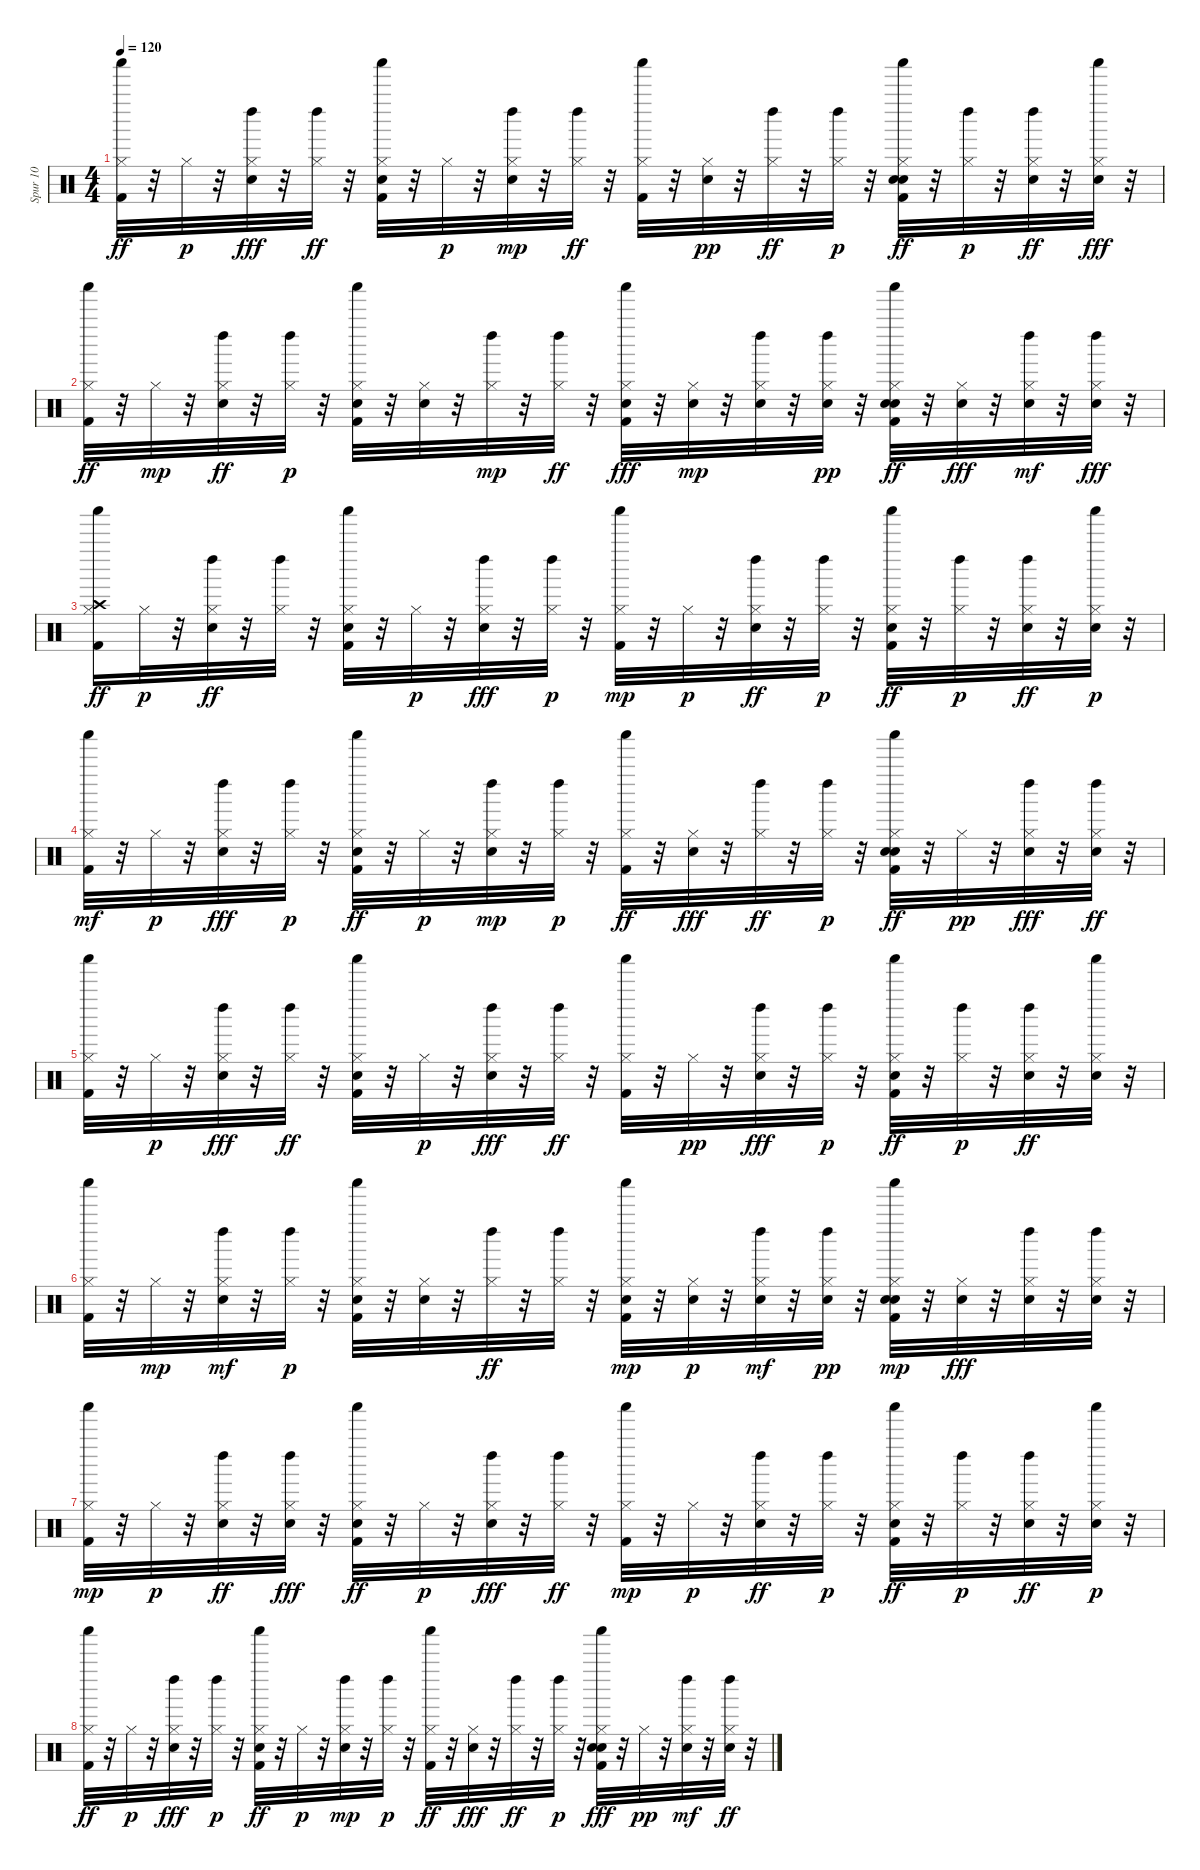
\track ("Spur 10" "Spur 10") {instrument percussion}
\staff {score}
\articulation defaults
\ts (4 4)
\tempo 120
\clef neutral
\ks c
("Shaker (hit)" "Hi-Hat (closed)" "Kick (hit) 2").32{dy ff} r.32 "Hi-Hat (closed)".32{dy p} r.32 ("Hi-Hat (closed)" "Left Maraca (hit)" "Electric Snare (hit)").32{dy fff} r.32 ("Hi-Hat (closed)" "Left Maraca (hit)").32{dy ff} r.32 ("Hi-Hat (closed)" "Snare (hit) 2" "Kick (hit) 2" "Shaker (hit)").32 r.32 "Hi-Hat (closed)".32{dy p} r.32 ("Hi-Hat (closed)" "Electric Snare (hit)" "Left Maraca (hit)").32{dy mp} r.32 ("Hi-Hat (closed)" "Left Maraca (hit)").32{dy ff} r.32 ("Hi-Hat (closed)" "Shaker (hit)" "Kick (hit) 2").32 r.32 ("Electric Snare (hit)" "Hi-Hat (closed)").32{dy pp} r.32 ("Left Maraca (hit)" "Hi-Hat (closed)").32{dy ff} r.32 ("Left Maraca (hit)" "Hi-Hat (closed)").32{dy p} r.32 ("Snare (hit) 2" "Electric Snare (hit)" "Hi-Hat (closed)" "Shaker (hit)" "Kick (hit) 2").32{dy ff} r.32 ("Left Maraca (hit)" "Hi-Hat (closed)").32{dy p} r.32 ("Electric Snare (hit)" "Hi-Hat (closed)" "Left Maraca (hit)").32{dy ff} r.32 ("Shaker (hit)" "Hi-Hat (closed)" "Electric Snare (hit)").32{dy fff} r.32 |
("Kick (hit) 2" "Shaker (hit)" "Hi-Hat (closed)").32{dy ff} r.32 "Hi-Hat (closed)".32{dy mp} r.32 ("Electric Snare (hit)" "Left Maraca (hit)" "Hi-Hat (closed)").32{dy ff} r.32 ("Hi-Hat (closed)" "Left Maraca (hit)").32{dy p} r.32 ("Snare (hit) 2" "Kick (hit) 2" "Shaker (hit)" "Hi-Hat (closed)").32 r.32 ("Electric Snare (hit)" "Hi-Hat (closed)").32 r.32 ("Hi-Hat (closed)" "Left Maraca (hit)").32{dy mp} r.32 ("Hi-Hat (closed)" "Left Maraca (hit)").32{dy ff} r.32 ("Kick (hit) 2" "Hi-Hat (closed)" "Shaker (hit)" "Electric Snare (hit)").32{dy fff} r.32 ("Hi-Hat (closed)" "Electric Snare (hit)").32{dy mp} r.32 ("Hi-Hat (closed)" "Left Maraca (hit)" "Electric Snare (hit)").32 r.32 ("Left Maraca (hit)" "Hi-Hat (closed)" "Electric Snare (hit)").32{dy pp} r.32 ("Hi-Hat (closed)" "Electric Snare (hit)" "Snare (hit) 2" "Shaker (hit)" "Kick (hit) 2").32{dy ff} r.32 ("Hi-Hat (closed)" "Electric Snare (hit)").32{dy fff} r.32 ("Electric Snare (hit)" "Hi-Hat (closed)" "Left Maraca (hit)").32{dy mf} r.32 ("Hi-Hat (closed)" "Left Maraca (hit)" "Electric Snare (hit)").32{dy fff} r.32 |
("Crash high (hit)" "Hi-Hat (closed)" "Shaker (hit)" "Kick (hit) 2").16{dy ff} "Hi-Hat (closed)".32{dy p} r.32 ("Left Maraca (hit)" "Electric Snare (hit)" "Hi-Hat (closed)").32{dy ff} r.32 ("Hi-Hat (closed)" "Left Maraca (hit)").32 r.32 ("Shaker (hit)" "Hi-Hat (closed)" "Snare (hit) 2" "Kick (hit) 2").32 r.32 "Hi-Hat (closed)".32{dy p} r.32 ("Left Maraca (hit)" "Hi-Hat (closed)" "Electric Snare (hit)").32{dy fff} r.32 ("Left Maraca (hit)" "Hi-Hat (closed)").32{dy p} r.32 ("Kick (hit) 2" "Shaker (hit)" "Hi-Hat (closed)").32{dy mp} r.32 "Hi-Hat (closed)".32{dy p} r.32 ("Electric Snare (hit)" "Hi-Hat (closed)" "Left Maraca (hit)").32{dy ff} r.32 ("Left Maraca (hit)" "Hi-Hat (closed)").32{dy p} r.32 ("Snare (hit) 2" "Hi-Hat (closed)" "Shaker (hit)" "Kick (hit) 2").32{dy ff} r.32 ("Hi-Hat (closed)" "Left Maraca (hit)").32{dy p} r.32 ("Hi-Hat (closed)" "Electric Snare (hit)" "Left Maraca (hit)").32{dy ff} r.32 ("Shaker (hit)" "Electric Snare (hit)" "Hi-Hat (closed)").32{dy p} r.32 |
("Kick (hit) 2" "Hi-Hat (closed)" "Shaker (hit)").32{dy mf} r.32 "Hi-Hat (closed)".32{dy p} r.32 ("Hi-Hat (closed)" "Left Maraca (hit)" "Electric Snare (hit)").32{dy fff} r.32 ("Left Maraca (hit)" "Hi-Hat (closed)").32{dy p} r.32 ("Snare (hit) 2" "Kick (hit) 2" "Hi-Hat (closed)" "Shaker (hit)").32{dy ff} r.32 "Hi-Hat (closed)".32{dy p} r.32 ("Hi-Hat (closed)" "Electric Snare (hit)" "Left Maraca (hit)").32{dy mp} r.32 ("Left Maraca (hit)" "Hi-Hat (closed)").32{dy p} r.32 ("Kick (hit) 2" "Shaker (hit)" "Hi-Hat (closed)").32{dy ff} r.32 ("Hi-Hat (closed)" "Electric Snare (hit)").32{dy fff} r.32 ("Hi-Hat (closed)" "Left Maraca (hit)").32{dy ff} r.32 ("Left Maraca (hit)" "Hi-Hat (closed)").32{dy p} r.32 ("Shaker (hit)" "Snare (hit) 2" "Kick (hit) 2" "Electric Snare (hit)" "Hi-Hat (closed)").32{dy ff} r.32 "Hi-Hat (closed)".32{dy pp} r.32 ("Left Maraca (hit)" "Hi-Hat (closed)" "Electric Snare (hit)").32{dy fff} r.32 ("Electric Snare (hit)" "Hi-Hat (closed)" "Left Maraca (hit)").32{dy ff} r.32 |
("Kick (hit) 2" "Hi-Hat (closed)" "Shaker (hit)").32 r.32 "Hi-Hat (closed)".32{dy p} r.32 ("Hi-Hat (closed)" "Left Maraca (hit)" "Electric Snare (hit)").32{dy fff} r.32 ("Hi-Hat (closed)" "Left Maraca (hit)").32{dy ff} r.32 ("Snare (hit) 2" "Shaker (hit)" "Hi-Hat (closed)" "Kick (hit) 2").32 r.32 "Hi-Hat (closed)".32{dy p} r.32 ("Left Maraca (hit)" "Hi-Hat (closed)" "Electric Snare (hit)").32{dy fff} r.32 ("Hi-Hat (closed)" "Left Maraca (hit)").32{dy ff} r.32 ("Shaker (hit)" "Hi-Hat (closed)" "Kick (hit) 2").32 r.32 "Hi-Hat (closed)".32{dy pp} r.32 ("Hi-Hat (closed)" "Left Maraca (hit)" "Electric Snare (hit)").32{dy fff} r.32 ("Left Maraca (hit)" "Hi-Hat (closed)").32{dy p} r.32 ("Shaker (hit)" "Hi-Hat (closed)" "Snare (hit) 2" "Kick (hit) 2").32{dy ff} r.32 ("Hi-Hat (closed)" "Left Maraca (hit)").32{dy p} r.32 ("Electric Snare (hit)" "Left Maraca (hit)" "Hi-Hat (closed)").32{dy ff} r.32 ("Electric Snare (hit)" "Hi-Hat (closed)" "Shaker (hit)").32 r.32 |
("Kick (hit) 2" "Hi-Hat (closed)" "Shaker (hit)").32 r.32 "Hi-Hat (closed)".32{dy mp} r.32 ("Electric Snare (hit)" "Hi-Hat (closed)" "Left Maraca (hit)").32{dy mf} r.32 ("Hi-Hat (closed)" "Left Maraca (hit)").32{dy p} r.32 ("Shaker (hit)" "Snare (hit) 2" "Kick (hit) 2" "Hi-Hat (closed)").32 r.32 ("Electric Snare (hit)" "Hi-Hat (closed)").32 r.32 ("Left Maraca (hit)" "Hi-Hat (closed)").32{dy ff} r.32 ("Hi-Hat (closed)" "Left Maraca (hit)").32 r.32 ("Electric Snare (hit)" "Shaker (hit)" "Kick (hit) 2" "Hi-Hat (closed)").32{dy mp} r.32 ("Electric Snare (hit)" "Hi-Hat (closed)").32{dy p} r.32 ("Hi-Hat (closed)" "Electric Snare (hit)" "Left Maraca (hit)").32{dy mf} r.32 ("Hi-Hat (closed)" "Left Maraca (hit)" "Electric Snare (hit)").32{dy pp} r.32 ("Shaker (hit)" "Electric Snare (hit)" "Kick (hit) 2" "Snare (hit) 2" "Hi-Hat (closed)").32{dy mp} r.32 ("Hi-Hat (closed)" "Electric Snare (hit)").32{dy fff} r.32 ("Left Maraca (hit)" "Hi-Hat (closed)" "Electric Snare (hit)").32 r.32 ("Hi-Hat (closed)" "Left Maraca (hit)" "Electric Snare (hit)").32 r.32 |
("Kick (hit) 2" "Hi-Hat (closed)" "Shaker (hit)").32{dy mp} r.32 "Hi-Hat (closed)".32{dy p} r.32 ("Electric Snare (hit)" "Left Maraca (hit)" "Hi-Hat (closed)").32{dy ff} r.32 ("Hi-Hat (closed)" "Left Maraca (hit)" "Electric Snare (hit)").32{dy fff} r.32 ("Snare (hit) 2" "Shaker (hit)" "Hi-Hat (closed)" "Kick (hit) 2").32{dy ff} r.32 "Hi-Hat (closed)".32{dy p} r.32 ("Hi-Hat (closed)" "Left Maraca (hit)" "Electric Snare (hit)").32{dy fff} r.32 ("Hi-Hat (closed)" "Left Maraca (hit)").32{dy ff} r.32 ("Kick (hit) 2" "Hi-Hat (closed)" "Shaker (hit)").32{dy mp} r.32 "Hi-Hat (closed)".32{dy p} r.32 ("Left Maraca (hit)" "Electric Snare (hit)" "Hi-Hat (closed)").32{dy ff} r.32 ("Left Maraca (hit)" "Hi-Hat (closed)").32{dy p} r.32 ("Shaker (hit)" "Hi-Hat (closed)" "Snare (hit) 2" "Kick (hit) 2").32{dy ff} r.32 ("Left Maraca (hit)" "Hi-Hat (closed)").32{dy p} r.32 ("Electric Snare (hit)" "Hi-Hat (closed)" "Left Maraca (hit)").32{dy ff} r.32 ("Electric Snare (hit)" "Hi-Hat (closed)" "Shaker (hit)").32{dy p} r.32 |
("Shaker (hit)" "Hi-Hat (closed)" "Kick (hit) 2").32{dy ff} r.32 "Hi-Hat (closed)".32{dy p} r.32 ("Left Maraca (hit)" "Hi-Hat (closed)" "Electric Snare (hit)").32{dy fff} r.32 ("Left Maraca (hit)" "Hi-Hat (closed)").32{dy p} r.32 ("Shaker (hit)" "Snare (hit) 2" "Kick (hit) 2" "Hi-Hat (closed)").32{dy ff} r.32 "Hi-Hat (closed)".32{dy p} r.32 ("Electric Snare (hit)" "Hi-Hat (closed)" "Left Maraca (hit)").32{dy mp} r.32 ("Left Maraca (hit)" "Hi-Hat (closed)").32{dy p} r.32 ("Hi-Hat (closed)" "Kick (hit) 2" "Shaker (hit)").32{dy ff} r.32 ("Hi-Hat (closed)" "Electric Snare (hit)").32{dy fff} r.32 ("Left Maraca (hit)" "Hi-Hat (closed)").32{dy ff} r.32 ("Left Maraca (hit)" "Hi-Hat (closed)").32{dy p} r.32 ("Hi-Hat (closed)" "Shaker (hit)" "Snare (hit) 2" "Kick (hit) 2" "Electric Snare (hit)").32{dy fff} r.32 "Hi-Hat (closed)".32{dy pp} r.32 ("Hi-Hat (closed)" "Electric Snare (hit)" "Left Maraca (hit)").32{dy mf} r.32 ("Left Maraca (hit)" "Hi-Hat (closed)" "Electric Snare (hit)").32{dy ff} r.32
